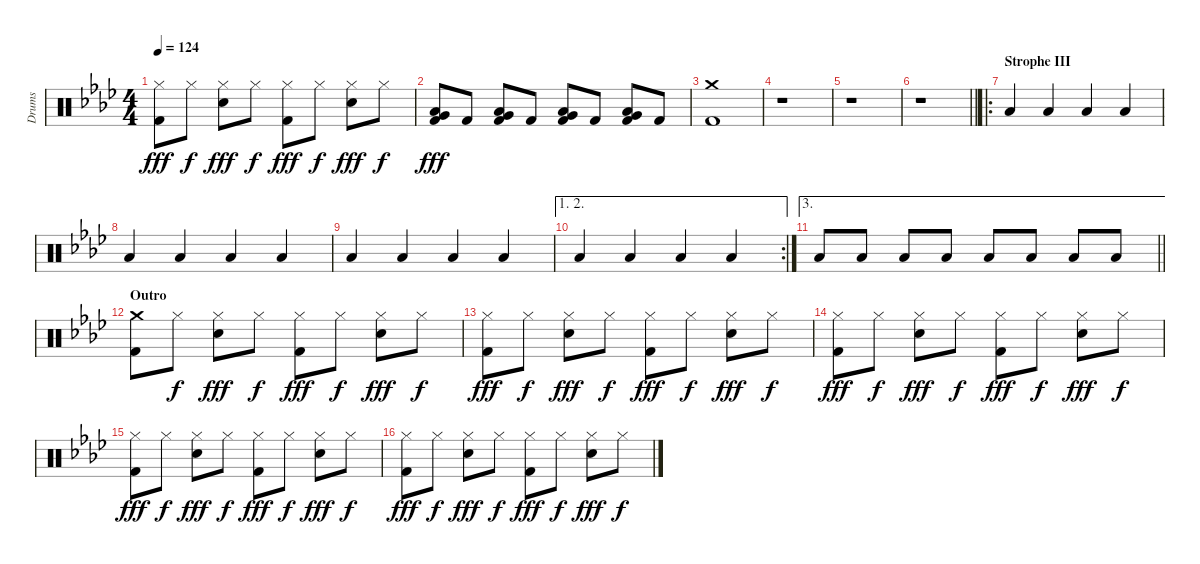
\track ("Drums" "Drums") {instrument percussion}
\staff {score}
\articulation defaults
\ts (4 4)
\tempo 124
\clef neutral
\ks ab
("Hi-Hat (closed)" "Kick (hit) 2").8{dy fff} "Hi-Hat (closed)".8{dy f} ("Hi-Hat (closed)" "Snare (hit) 2").8{dy fff} "Hi-Hat (closed)".8{dy f} ("Hi-Hat (closed)" "Kick (hit) 2").8{dy fff} "Hi-Hat (closed)".8{dy f} ("Hi-Hat (closed)" "Snare (hit) 2").8{dy fff} "Hi-Hat (closed)".8{dy f} |
("Very Low Tom (hit)" "Low Floor Tom (hit)" "Kick (hit) 2").8{dy fff} "Kick (hit) 2".8 ("Very Low Tom (hit)" "Low Floor Tom (hit)" "Kick (hit) 2").8 "Kick (hit) 2".8 ("Very Low Tom (hit)" "Low Floor Tom (hit)" "Kick (hit) 2").8 "Kick (hit) 2".8 ("Very Low Tom (hit)" "Low Floor Tom (hit)" "Kick (hit) 2").8 "Kick (hit) 2".8 |
("Crash medium (hit)" "Kick (hit) 2").1 |
r.1 |
r.1 |
\barLineRight lightlight
r.1 |
\ro
\section ("" "Strophe III")
"Low Floor Tom (hit)".4 "Low Floor Tom (hit)".4 "Low Floor Tom (hit)".4 "Low Floor Tom (hit)".4 |
"Low Floor Tom (hit)".4 "Low Floor Tom (hit)".4 "Low Floor Tom (hit)".4 "Low Floor Tom (hit)".4 |
"Low Floor Tom (hit)".4 "Low Floor Tom (hit)".4 "Low Floor Tom (hit)".4 "Low Floor Tom (hit)".4 |
\ae (1 2)
\rc 2 "Low Floor Tom (hit)".4 "Low Floor Tom (hit)".4 "Low Floor Tom (hit)".4 "Low Floor Tom (hit)".4
|
\ae 3
\barLineRight lightlight "Low Floor Tom (hit)".8 "Low Floor Tom (hit)".8 "Low Floor Tom (hit)".8 "Low Floor Tom (hit)".8 "Low Floor Tom (hit)".8 "Low Floor Tom (hit)".8 "Low Floor Tom (hit)".8 "Low Floor Tom (hit)".8
|
\section ("" "Outro")
("Crash medium (hit)" "Kick (hit) 2").8 "Hi-Hat (closed)".8{dy f} ("Hi-Hat (closed)" "Snare (hit) 2").8{dy fff} "Hi-Hat (closed)".8{dy f} ("Hi-Hat (closed)" "Kick (hit) 2").8{dy fff} "Hi-Hat (closed)".8{dy f} ("Hi-Hat (closed)" "Snare (hit) 2").8{dy fff} "Hi-Hat (closed)".8{dy f} |
("Hi-Hat (closed)" "Kick (hit) 2").8{dy fff} "Hi-Hat (closed)".8{dy f} ("Hi-Hat (closed)" "Snare (hit) 2").8{dy fff} "Hi-Hat (closed)".8{dy f} ("Hi-Hat (closed)" "Kick (hit) 2").8{dy fff} "Hi-Hat (closed)".8{dy f} ("Hi-Hat (closed)" "Snare (hit) 2").8{dy fff} "Hi-Hat (closed)".8{dy f} |
("Hi-Hat (closed)" "Kick (hit) 2").8{dy fff} "Hi-Hat (closed)".8{dy f} ("Hi-Hat (closed)" "Snare (hit) 2").8{dy fff} "Hi-Hat (closed)".8{dy f} ("Hi-Hat (closed)" "Kick (hit) 2").8{dy fff} "Hi-Hat (closed)".8{dy f} ("Hi-Hat (closed)" "Snare (hit) 2").8{dy fff} "Hi-Hat (closed)".8{dy f} |
("Hi-Hat (closed)" "Kick (hit) 2").8{dy fff} "Hi-Hat (closed)".8{dy f} ("Hi-Hat (closed)" "Snare (hit) 2").8{dy fff} "Hi-Hat (closed)".8{dy f} ("Hi-Hat (closed)" "Kick (hit) 2").8{dy fff} "Hi-Hat (closed)".8{dy f} ("Hi-Hat (closed)" "Snare (hit) 2").8{dy fff} "Hi-Hat (closed)".8{dy f} |
("Hi-Hat (closed)" "Kick (hit) 2").8{dy fff} "Hi-Hat (closed)".8{dy f} ("Hi-Hat (closed)" "Snare (hit) 2").8{dy fff} "Hi-Hat (closed)".8{dy f} ("Hi-Hat (closed)" "Kick (hit) 2").8{dy fff} "Hi-Hat (closed)".8{dy f} ("Hi-Hat (closed)" "Snare (hit) 2").8{dy fff} "Hi-Hat (closed)".8{dy f}
